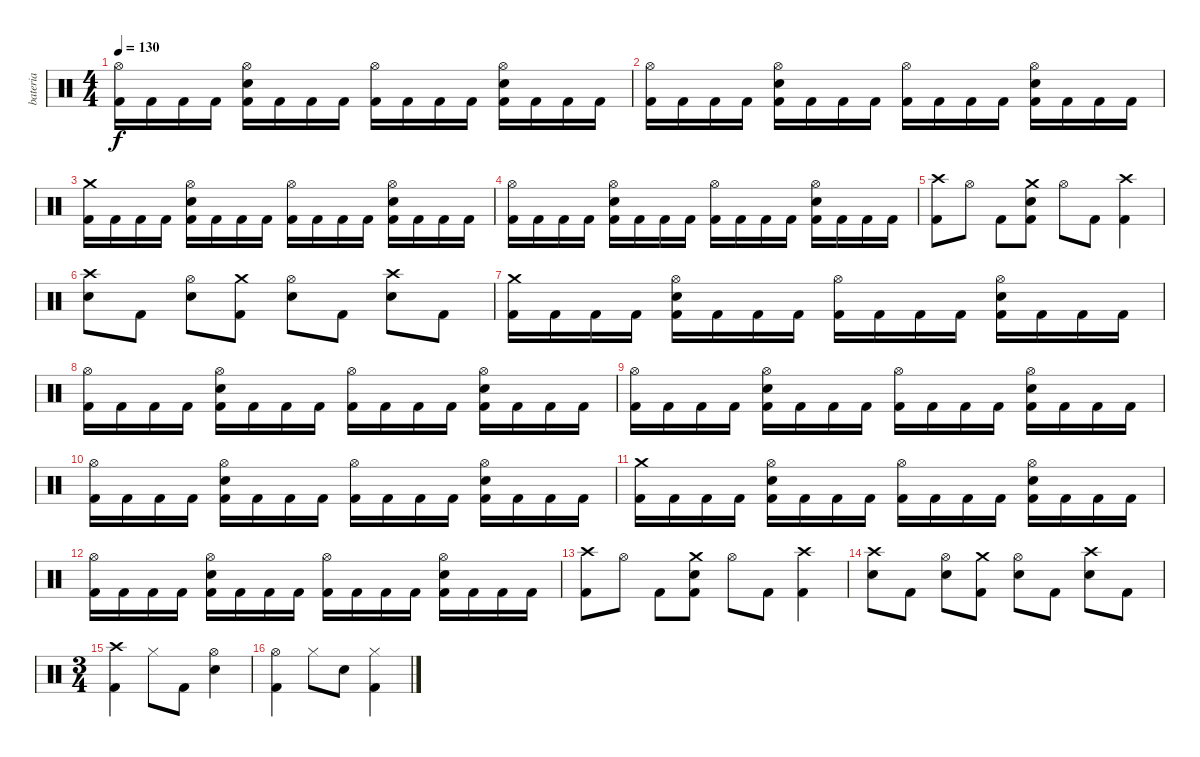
\track ("bateria" "bateria") {instrument percussion}
\staff {score}
\articulation defaults
\ts (4 4)
\tempo 130
\clef neutral
\ks c
("Hi-Hat (open)" "Kick (hit) 2").16{dy f} "Kick (hit) 2".16 "Kick (hit) 2".16 "Kick (hit) 2".16 ("Hi-Hat (open)" "Electric Snare (hit)" "Kick (hit) 2").16 "Kick (hit) 2".16 "Kick (hit) 2".16 "Kick (hit) 2".16 ("Hi-Hat (open)" "Kick (hit) 2").16 "Kick (hit) 2".16 "Kick (hit) 2".16 "Kick (hit) 2".16 ("Hi-Hat (open)" "Electric Snare (hit)" "Kick (hit) 2").16 "Kick (hit) 2".16 "Kick (hit) 2".16 "Kick (hit) 2".16 |
("Hi-Hat (open)" "Kick (hit) 2").16 "Kick (hit) 2".16 "Kick (hit) 2".16 "Kick (hit) 2".16 ("Hi-Hat (open)" "Electric Snare (hit)" "Kick (hit) 2").16 "Kick (hit) 2".16 "Kick (hit) 2".16 "Kick (hit) 2".16 ("Hi-Hat (open)" "Kick (hit) 2").16 "Kick (hit) 2".16 "Kick (hit) 2".16 "Kick (hit) 2".16 ("Hi-Hat (open)" "Electric Snare (hit)" "Kick (hit) 2").16 "Kick (hit) 2".16 "Kick (hit) 2".16 "Kick (hit) 2".16 |
("Crash medium (hit)" "Kick (hit) 2").16 "Kick (hit) 2".16 "Kick (hit) 2".16 "Kick (hit) 2".16 ("Hi-Hat (open)" "Electric Snare (hit)" "Kick (hit) 2").16 "Kick (hit) 2".16 "Kick (hit) 2".16 "Kick (hit) 2".16 ("Hi-Hat (open)" "Kick (hit) 2").16 "Kick (hit) 2".16 "Kick (hit) 2".16 "Kick (hit) 2".16 ("Hi-Hat (open)" "Electric Snare (hit)" "Kick (hit) 2").16 "Kick (hit) 2".16 "Kick (hit) 2".16 "Kick (hit) 2".16 |
("Hi-Hat (open)" "Kick (hit) 2").16 "Kick (hit) 2".16 "Kick (hit) 2".16 "Kick (hit) 2".16 ("Hi-Hat (open)" "Electric Snare (hit)" "Kick (hit) 2").16 "Kick (hit) 2".16 "Kick (hit) 2".16 "Kick (hit) 2".16 ("Hi-Hat (open)" "Kick (hit) 2").16 "Kick (hit) 2".16 "Kick (hit) 2".16 "Kick (hit) 2".16 ("Hi-Hat (open)" "Electric Snare (hit)" "Kick (hit) 2").16 "Kick (hit) 2".16 "Kick (hit) 2".16 "Kick (hit) 2".16 |
("Crash high (hit)" "Kick (hit) 2").8 "Hi-Hat (open)".8 "Kick (hit) 2".8 ("Crash medium (hit)" "Electric Snare (hit)" "Kick (hit) 2").8 "Hi-Hat (open)".8 "Kick (hit) 2".8 ("Crash high (hit)" "Kick (hit) 2").4 |
("Crash high (hit)" "Electric Snare (hit)").8 "Kick (hit) 2".8 ("Hi-Hat (open)" "Electric Snare (hit)").8 ("Crash medium (hit)" "Kick (hit) 2").8 ("Hi-Hat (open)" "Electric Snare (hit)").8 "Kick (hit) 2".8 ("Crash high (hit)" "Electric Snare (hit)").8 "Kick (hit) 2".8 |
("Crash medium (hit)" "Kick (hit) 2").16 "Kick (hit) 2".16 "Kick (hit) 2".16 "Kick (hit) 2".16 ("Hi-Hat (open)" "Electric Snare (hit)" "Kick (hit) 2").16 "Kick (hit) 2".16 "Kick (hit) 2".16 "Kick (hit) 2".16 ("Hi-Hat (open)" "Kick (hit) 2").16 "Kick (hit) 2".16 "Kick (hit) 2".16 "Kick (hit) 2".16 ("Hi-Hat (open)" "Electric Snare (hit)" "Kick (hit) 2").16 "Kick (hit) 2".16 "Kick (hit) 2".16 "Kick (hit) 2".16 |
("Hi-Hat (open)" "Kick (hit) 2").16 "Kick (hit) 2".16 "Kick (hit) 2".16 "Kick (hit) 2".16 ("Hi-Hat (open)" "Electric Snare (hit)" "Kick (hit) 2").16 "Kick (hit) 2".16 "Kick (hit) 2".16 "Kick (hit) 2".16 ("Hi-Hat (open)" "Kick (hit) 2").16 "Kick (hit) 2".16 "Kick (hit) 2".16 "Kick (hit) 2".16 ("Hi-Hat (open)" "Electric Snare (hit)" "Kick (hit) 2").16 "Kick (hit) 2".16 "Kick (hit) 2".16 "Kick (hit) 2".16 |
("Hi-Hat (open)" "Kick (hit) 2").16 "Kick (hit) 2".16 "Kick (hit) 2".16 "Kick (hit) 2".16 ("Hi-Hat (open)" "Electric Snare (hit)" "Kick (hit) 2").16 "Kick (hit) 2".16 "Kick (hit) 2".16 "Kick (hit) 2".16 ("Hi-Hat (open)" "Kick (hit) 2").16 "Kick (hit) 2".16 "Kick (hit) 2".16 "Kick (hit) 2".16 ("Hi-Hat (open)" "Electric Snare (hit)" "Kick (hit) 2").16 "Kick (hit) 2".16 "Kick (hit) 2".16 "Kick (hit) 2".16 |
("Hi-Hat (open)" "Kick (hit) 2").16 "Kick (hit) 2".16 "Kick (hit) 2".16 "Kick (hit) 2".16 ("Hi-Hat (open)" "Electric Snare (hit)" "Kick (hit) 2").16 "Kick (hit) 2".16 "Kick (hit) 2".16 "Kick (hit) 2".16 ("Hi-Hat (open)" "Kick (hit) 2").16 "Kick (hit) 2".16 "Kick (hit) 2".16 "Kick (hit) 2".16 ("Hi-Hat (open)" "Electric Snare (hit)" "Kick (hit) 2").16 "Kick (hit) 2".16 "Kick (hit) 2".16 "Kick (hit) 2".16 |
("Crash medium (hit)" "Kick (hit) 2").16 "Kick (hit) 2".16 "Kick (hit) 2".16 "Kick (hit) 2".16 ("Hi-Hat (open)" "Electric Snare (hit)" "Kick (hit) 2").16 "Kick (hit) 2".16 "Kick (hit) 2".16 "Kick (hit) 2".16 ("Hi-Hat (open)" "Kick (hit) 2").16 "Kick (hit) 2".16 "Kick (hit) 2".16 "Kick (hit) 2".16 ("Hi-Hat (open)" "Electric Snare (hit)" "Kick (hit) 2").16 "Kick (hit) 2".16 "Kick (hit) 2".16 "Kick (hit) 2".16 |
("Hi-Hat (open)" "Kick (hit) 2").16 "Kick (hit) 2".16 "Kick (hit) 2".16 "Kick (hit) 2".16 ("Hi-Hat (open)" "Electric Snare (hit)" "Kick (hit) 2").16 "Kick (hit) 2".16 "Kick (hit) 2".16 "Kick (hit) 2".16 ("Hi-Hat (open)" "Kick (hit) 2").16 "Kick (hit) 2".16 "Kick (hit) 2".16 "Kick (hit) 2".16 ("Hi-Hat (open)" "Electric Snare (hit)" "Kick (hit) 2").16 "Kick (hit) 2".16 "Kick (hit) 2".16 "Kick (hit) 2".16 |
("Crash high (hit)" "Kick (hit) 2").8 "Hi-Hat (open)".8 "Kick (hit) 2".8 ("Crash medium (hit)" "Electric Snare (hit)" "Kick (hit) 2").8 "Hi-Hat (open)".8 "Kick (hit) 2".8 ("Crash high (hit)" "Kick (hit) 2").4 |
("Crash high (hit)" "Electric Snare (hit)").8 "Kick (hit) 2".8 ("Hi-Hat (open)" "Electric Snare (hit)").8 ("Crash medium (hit)" "Kick (hit) 2").8 ("Hi-Hat (open)" "Electric Snare (hit)").8 "Kick (hit) 2".8 ("Crash high (hit)" "Electric Snare (hit)").8 "Kick (hit) 2".8 |
\ts (3 4)
("Crash high (hit)" "Kick (hit) 2").4 "Hi-Hat (closed)".8 "Kick (hit) 2".8 ("Hi-Hat (open)" "Electric Snare (hit)").4 |
("Hi-Hat (open)" "Kick (hit) 2").4 "Hi-Hat (closed)".8 "Electric Snare (hit)".8 ("Hi-Hat (closed)" "Kick (hit) 2").4
